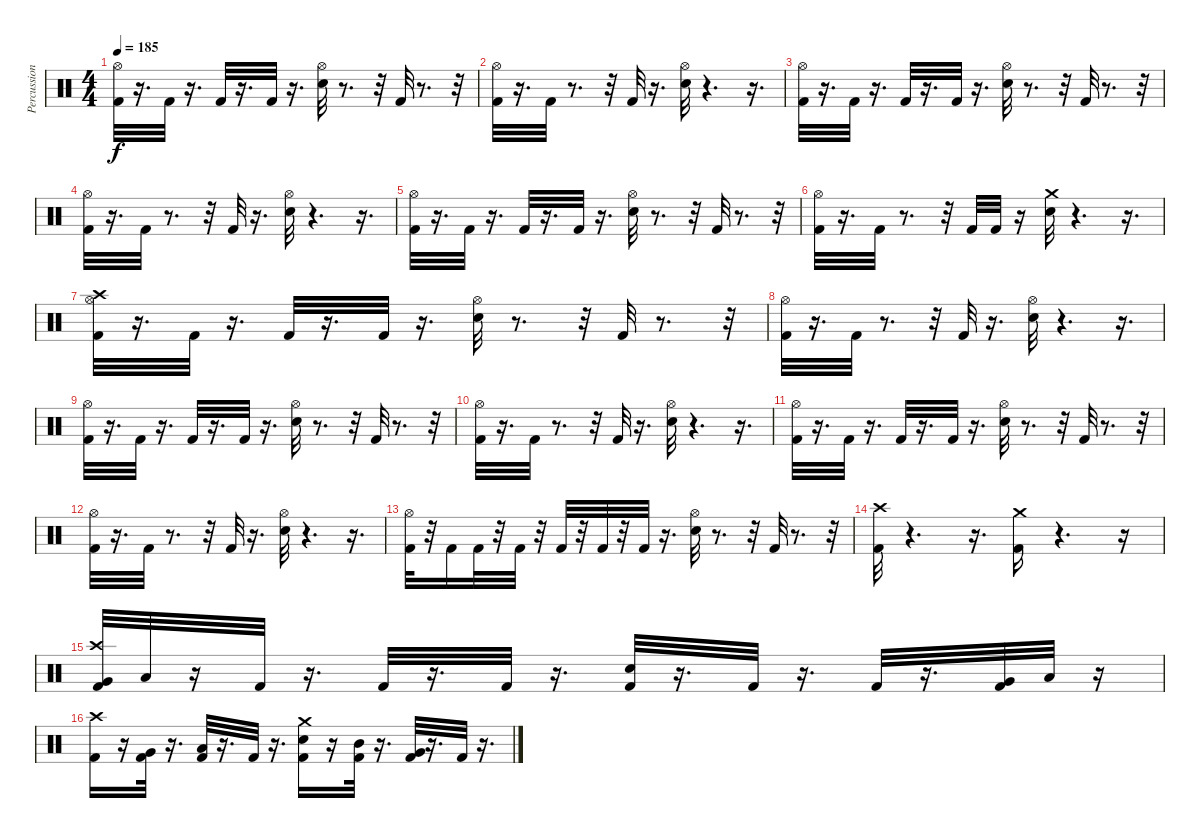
\track ("Percussion" "Percussion") {instrument percussion}
\staff {score}
\articulation defaults
\ts (4 4)
\tempo 185
\clef neutral
\ks c
("Kick (hit) 2" "Hi-Hat (open)").32{dy f} r.16{d} "Kick (hit) 2".32 r.16{d} "Kick (hit) 2".32 r.16{d} "Kick (hit) 2".32 r.16{d} ("Snare (hit) 2" "Hi-Hat (open)").32 r.8{d} r.32 "Kick (hit) 2".32 r.8{d} r.32 |
("Kick (hit) 2" "Hi-Hat (open)").32 r.16{d} "Kick (hit) 2".32 r.8{d} r.32 "Kick (hit) 2".32 r.16{d} ("Snare (hit) 2" "Hi-Hat (open)").32 r.4{d} r.16{d} |
("Kick (hit) 2" "Hi-Hat (open)").32 r.16{d} "Kick (hit) 2".32 r.16{d} "Kick (hit) 2".32 r.16{d} "Kick (hit) 2".32 r.16{d} ("Snare (hit) 2" "Hi-Hat (open)").32 r.8{d} r.32 "Kick (hit) 2".32 r.8{d} r.32 |
("Kick (hit) 2" "Hi-Hat (open)").32 r.16{d} "Kick (hit) 2".32 r.8{d} r.32 "Kick (hit) 2".32 r.16{d} ("Snare (hit) 2" "Hi-Hat (open)").32 r.4{d} r.16{d} |
("Kick (hit) 2" "Hi-Hat (open)").32 r.16{d} "Kick (hit) 2".32 r.16{d} "Kick (hit) 2".32 r.16{d} "Kick (hit) 2".32 r.16{d} ("Snare (hit) 2" "Hi-Hat (open)").32 r.8{d} r.32 "Kick (hit) 2".32 r.8{d} r.32 |
("Kick (hit) 2" "Hi-Hat (open)").32 r.16{d} "Kick (hit) 2".32 r.8{d} r.32 "Kick (hit) 2".32 "Kick (hit) 2".32 r.16 ("Snare (hit) 2" "Crash medium (hit)").32 r.4{d} r.16{d} |
("Kick (hit) 2" "Hi-Hat (open)" "Crash high (hit)").32 r.16{d} "Kick (hit) 2".32 r.16{d} "Kick (hit) 2".32 r.16{d} "Kick (hit) 2".32 r.16{d} ("Snare (hit) 2" "Hi-Hat (open)").32 r.8{d} r.32 "Kick (hit) 2".32 r.8{d} r.32 |
("Kick (hit) 2" "Hi-Hat (open)").32 r.16{d} "Kick (hit) 2".32 r.8{d} r.32 "Kick (hit) 2".32 r.16{d} ("Snare (hit) 2" "Hi-Hat (open)").32 r.4{d} r.16{d} |
("Kick (hit) 2" "Hi-Hat (open)").32 r.16{d} "Kick (hit) 2".32 r.16{d} "Kick (hit) 2".32 r.16{d} "Kick (hit) 2".32 r.16{d} ("Snare (hit) 2" "Hi-Hat (open)").32 r.8{d} r.32 "Kick (hit) 2".32 r.8{d} r.32 |
("Kick (hit) 2" "Hi-Hat (open)").32 r.16{d} "Kick (hit) 2".32 r.8{d} r.32 "Kick (hit) 2".32 r.16{d} ("Snare (hit) 2" "Hi-Hat (open)").32 r.4{d} r.16{d} |
("Kick (hit) 2" "Hi-Hat (open)").32 r.16{d} "Kick (hit) 2".32 r.16{d} "Kick (hit) 2".32 r.16{d} "Kick (hit) 2".32 r.16{d} ("Snare (hit) 2" "Hi-Hat (open)").32 r.8{d} r.32 "Kick (hit) 2".32 r.8{d} r.32 |
("Kick (hit) 2" "Hi-Hat (open)").32 r.16{d} "Kick (hit) 2".32 r.8{d} r.32 "Kick (hit) 2".32 r.16{d} ("Snare (hit) 2" "Hi-Hat (open)").32 r.4{d} r.16{d} |
("Kick (hit) 2" "Hi-Hat (open)").32 r.32 "Kick (hit) 2".16 "Kick (hit) 2".32 r.32 "Kick (hit) 2".32 r.32 "Kick (hit) 2".32 r.32 "Kick (hit) 2".32 r.32 "Kick (hit) 2".32 r.16{d} ("Snare (hit) 2" "Hi-Hat (open)").32 r.8{d} r.32 "Kick (hit) 2".32 r.8{d} r.32 |
("Kick (hit) 2" "Crash high (hit)").32 r.4{d} r.16{d} ("Kick (hit) 2" "Crash medium (hit)").16 r.4{d} r.16 |
("Kick (hit) 2" "Very Low Tom (hit)" "Crash high (hit)").32 "Low Floor Tom (hit)".32 r.16 "Kick (hit) 2".32 r.16{d} "Kick (hit) 2".32 r.16{d} "Kick (hit) 2".32 r.16{d} ("Kick (hit) 2" "Snare (hit) 2").32 r.16{d} "Kick (hit) 2".32 r.16{d} "Kick (hit) 2".32 r.16{d} ("Kick (hit) 2" "Very Low Tom (hit)").32 "Low Floor Tom (hit)".32 r.16 |
("Kick (hit) 2" "Crash high (hit)").16 r.16 ("Kick (hit) 2" "Very Low Tom (hit)").32 r.16{d} ("Kick (hit) 2" "Low Floor Tom (hit)").32 r.16{d} "Kick (hit) 2".32 r.16{d} ("Kick (hit) 2" "Snare (hit) 2" "Crash medium (hit)").16 r.16 ("Kick (hit) 2" "Mid Tom (hit)").32 r.16{d} ("Kick (hit) 2" "Very Low Tom (hit)").32 r.16{d} "Kick (hit) 2".32 r.16{d}
